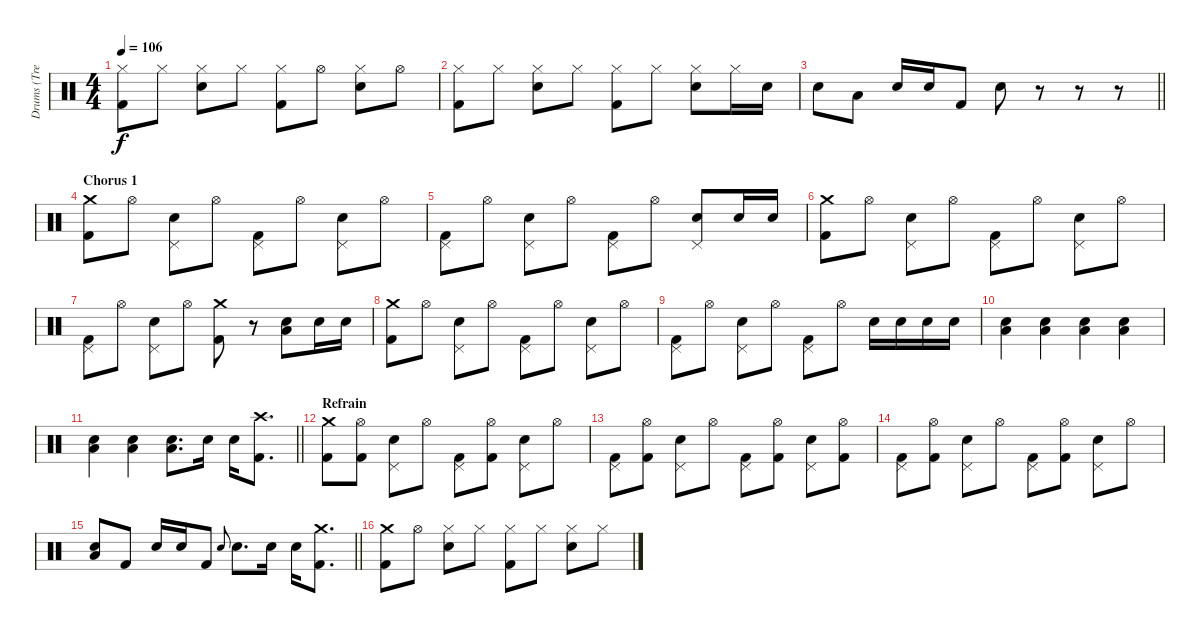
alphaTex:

\track ("Drums (Tre Cool)" "Drums (Tre") {instrument percussion}
\staff {score}
\articulation defaults
\ts (4 4)
\tempo 106
\clef neutral
\ks c
("Hi-Hat (closed)" "Kick (hit) 2").8{dy f} "Hi-Hat (closed)".8 ("Hi-Hat (closed)" "Electric Snare (hit)").8 "Hi-Hat (closed)".8 ("Hi-Hat (closed)" "Kick (hit) 2").8 "Hi-Hat (open)".8 ("Hi-Hat (closed)" "Electric Snare (hit)").8 "Hi-Hat (open)".8 |
("Hi-Hat (closed)" "Kick (hit) 2").8 "Hi-Hat (closed)".8 ("Hi-Hat (closed)" "Electric Snare (hit)").8 "Hi-Hat (closed)".8 ("Hi-Hat (closed)" "Kick (hit) 2").8 "Hi-Hat (closed)".8 ("Hi-Hat (closed)" "Electric Snare (hit)").8 "Hi-Hat (closed)".16 "Electric Snare (hit)".16 |
\barLineRight lightlight "Electric Snare (hit)".8 "Low Tom (hit)".8 "Electric Snare (hit)".16 "Electric Snare (hit)".16 "Kick (hit) 2".8 "Electric Snare (hit)".8
r.8 r.8 r.8 |
\section ("" "Chorus 1")
("Crash medium (hit)" "Kick (hit) 2").8 "Hi-Hat (open)".8 ("Pedal Hi-Hat (hit)" "Electric Snare (hit)").8 "Hi-Hat (open)".8 ("Pedal Hi-Hat (hit)" "Kick (hit) 2").8 "Hi-Hat (open)".8 ("Pedal Hi-Hat (hit)" "Electric Snare (hit)").8 "Hi-Hat (open)".8 |
("Pedal Hi-Hat (hit)" "Kick (hit) 2").8 "Hi-Hat (open)".8 ("Pedal Hi-Hat (hit)" "Electric Snare (hit)").8 "Hi-Hat (open)".8 ("Pedal Hi-Hat (hit)" "Kick (hit) 2").8 "Hi-Hat (open)".8 ("Pedal Hi-Hat (hit)" "Electric Snare (hit)").8 "Electric Snare (hit)".16 "Electric Snare (hit)".16 |
("Crash medium (hit)" "Kick (hit) 2").8 "Hi-Hat (open)".8 ("Pedal Hi-Hat (hit)" "Electric Snare (hit)").8 "Hi-Hat (open)".8 ("Pedal Hi-Hat (hit)" "Kick (hit) 2").8 "Hi-Hat (open)".8 ("Pedal Hi-Hat (hit)" "Electric Snare (hit)").8 "Hi-Hat (open)".8 |
("Pedal Hi-Hat (hit)" "Kick (hit) 2").8 "Hi-Hat (open)".8 ("Pedal Hi-Hat (hit)" "Electric Snare (hit)").8 "Hi-Hat (open)".8 ("Crash medium (hit)" "Kick (hit) 2").8 r.8 ("Electric Snare (hit)" "Low Floor Tom (hit)").8 "Electric Snare (hit)".16 "Electric Snare (hit)".16 |
("Crash medium (hit)" "Kick (hit) 2").8 "Hi-Hat (open)".8 ("Pedal Hi-Hat (hit)" "Electric Snare (hit)").8 "Hi-Hat (open)".8 ("Pedal Hi-Hat (hit)" "Kick (hit) 2").8 "Hi-Hat (open)".8 ("Pedal Hi-Hat (hit)" "Electric Snare (hit)").8 "Hi-Hat (open)".8 |
("Pedal Hi-Hat (hit)" "Kick (hit) 2").8 "Hi-Hat (open)".8 ("Pedal Hi-Hat (hit)" "Electric Snare (hit)").8 "Hi-Hat (open)".8 ("Pedal Hi-Hat (hit)" "Kick (hit) 2").8 "Hi-Hat (open)".8 "Electric Snare (hit)".16 "Electric Snare (hit)".16 "Electric Snare (hit)".16 "Electric Snare (hit)".16 |
("Electric Snare (hit)" "Low Floor Tom (hit)").4 ("Electric Snare (hit)" "Low Floor Tom (hit)").4 ("Electric Snare (hit)" "Low Floor Tom (hit)").4 ("Electric Snare (hit)" "Low Floor Tom (hit)").4 |
\barLineRight lightlight
("Electric Snare (hit)" "Low Floor Tom (hit)").4 ("Electric Snare (hit)" "Low Floor Tom (hit)").4 ("Electric Snare (hit)" "Low Floor Tom (hit)").8{d} "Electric Snare (hit)".16 "Electric Snare (hit)".16 ("Crash high (hit)" "Kick (hit) 2").8{d} |
\section ("" "Refrain")
("Crash medium (hit)" "Kick (hit) 2").8 ("Hi-Hat (open)" "Kick (hit) 2").8 ("Pedal Hi-Hat (hit)" "Electric Snare (hit)").8 "Hi-Hat (open)".8 ("Pedal Hi-Hat (hit)" "Kick (hit) 2").8 ("Hi-Hat (open)" "Kick (hit) 2").8 ("Pedal Hi-Hat (hit)" "Electric Snare (hit)").8 "Hi-Hat (open)".8 |
("Pedal Hi-Hat (hit)" "Kick (hit) 2").8 ("Hi-Hat (open)" "Kick (hit) 2").8 ("Pedal Hi-Hat (hit)" "Electric Snare (hit)").8 "Hi-Hat (open)".8 ("Pedal Hi-Hat (hit)" "Kick (hit) 2").8 ("Hi-Hat (open)" "Kick (hit) 2").8 ("Pedal Hi-Hat (hit)" "Electric Snare (hit)").8 ("Hi-Hat (open)" "Kick (hit) 2").8 |
("Pedal Hi-Hat (hit)" "Kick (hit) 2").8 ("Hi-Hat (open)" "Kick (hit) 2").8 ("Pedal Hi-Hat (hit)" "Electric Snare (hit)").8 "Hi-Hat (open)".8 ("Pedal Hi-Hat (hit)" "Kick (hit) 2").8 ("Hi-Hat (open)" "Kick (hit) 2").8 ("Pedal Hi-Hat (hit)" "Electric Snare (hit)").8 "Hi-Hat (open)".8 |
\barLineRight lightlight
("Electric Snare (hit)" "Low Floor Tom (hit)").8 "Kick (hit) 2".8 "Electric Snare (hit)".16 "Electric Snare (hit)".16 "Kick (hit) 2".8 "Electric Snare (hit)".8{gr onbeat} "Electric Snare (hit)".8{d} "Electric Snare (hit)".16 "Electric Snare (hit)".16 ("Crash medium (hit)" "Kick (hit) 2").8{d} |
("Crash medium (hit)" "Kick (hit) 2").8 "Hi-Hat (open)".8 ("Hi-Hat (closed)" "Electric Snare (hit)").8 "Hi-Hat (closed)".8 ("Hi-Hat (closed)" "Kick (hit) 2").8 "Hi-Hat (closed)".8 ("Hi-Hat (closed)" "Electric Snare (hit)").8 "Hi-Hat (closed)".8
